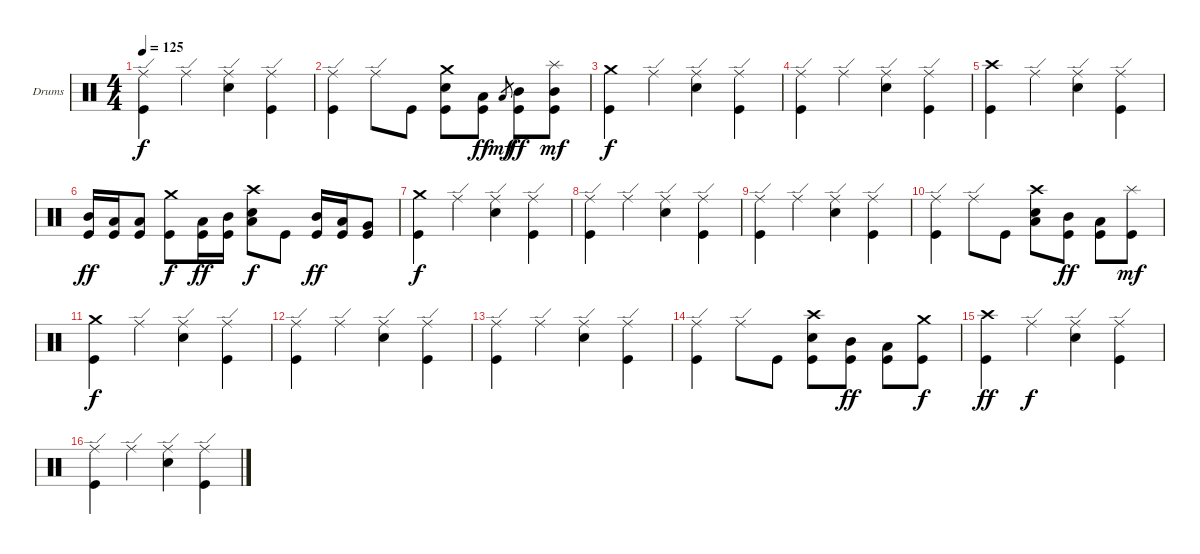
\bracketExtendMode groupsimilarinstruments
\firstSystemTrackNameOrientation horizontal
\otherSystemsTrackNameOrientation horizontal
\track ("Барабаны" "Drums") {instrument percussion}
\staff {score}
\articulation defaults
\ts (4 4)
\tempo 125
\clef neutral
\ks c
("Ride (edge)" "Kick (hit)").4{dy f} "Ride (edge)".4 ("Ride (edge)" "Snare (hit) 2").4 ("Ride (edge)" "Kick (hit)").4 |
("Ride (edge)" "Kick (hit)").4 "Ride (edge)".8 "Kick (hit)".8 ("Crash medium (hit)" "Snare (hit) 2" "Kick (hit)").8 ("Low Tom (hit)" "Kick (hit)").8{dy ff} "Low Tom (hit)".8{gr dy mf} ("Mid Tom (hit)" "Kick (hit)").8{dy ff} ("Mid Tom (hit)" "Kick (hit)" "Splash (hit)").8{dy mf} |
("Crash medium (hit)" "Kick (hit)").4{dy f} "Ride (edge)".4 ("Ride (edge)" "Snare (hit) 2").4 ("Ride (edge)" "Kick (hit)").4 |
("Ride (edge)" "Kick (hit)").4 "Ride (edge)".4 ("Ride (edge)" "Snare (hit) 2").4 ("Ride (edge)" "Kick (hit)").4 |
("Crash high (hit)" "Kick (hit)").4 "Ride (edge)".4 ("Ride (edge)" "Snare (hit) 2").4 ("Ride (edge)" "Kick (hit)").4 |
("Mid Tom (hit)" "Kick (hit)").16{dy ff} ("Low Tom (hit)" "Kick (hit)").16 ("Low Tom (hit)" "Kick (hit)").8 ("Crash medium (hit)" "Kick (hit)").8{dy f} ("Low Tom (hit)" "Kick (hit)").16{dy ff} ("Mid Tom (hit)" "Kick (hit)").16 ("Crash high (hit)" "Snare (hit) 2" "Low Tom (hit)").8{dy f} "Kick (hit)".8 ("Mid Tom (hit)" "Kick (hit)").16{dy ff} ("Low Tom (hit)" "Kick (hit)").16 ("Very Low Tom (hit)" "Kick (hit)").8 |
("Crash medium (hit)" "Kick (hit)").4{dy f} "Ride (edge)".4 ("Ride (edge)" "Snare (hit) 2").4 ("Ride (edge)" "Kick (hit)").4 |
("Ride (edge)" "Kick (hit)").4 "Ride (edge)".4 ("Ride (edge)" "Snare (hit) 2").4 ("Ride (edge)" "Kick (hit)").4 |
("Ride (edge)" "Kick (hit)").4 "Ride (edge)".4 ("Ride (edge)" "Snare (hit) 2").4 ("Ride (edge)" "Kick (hit)").4 |
("Ride (edge)" "Kick (hit)").4 "Ride (edge)".8 "Kick (hit)".8 ("Crash high (hit)" "Snare (hit) 2" "Low Tom (hit)").8 ("Mid Tom (hit)" "Kick (hit)").8{dy ff} ("Low Tom (hit)" "Kick (hit)").8 ("Kick (hit)" "Splash (hit)").8{dy mf} |
("Crash medium (hit)" "Kick (hit)").4{dy f} "Ride (edge)".4 ("Ride (edge)" "Snare (hit) 2").4 ("Ride (edge)" "Kick (hit)").4 |
("Ride (edge)" "Kick (hit)").4 "Ride (edge)".4 ("Ride (edge)" "Snare (hit) 2").4 ("Ride (edge)" "Kick (hit)").4 |
("Ride (edge)" "Kick (hit)").4 "Ride (edge)".4 ("Ride (edge)" "Snare (hit) 2").4 ("Ride (edge)" "Kick (hit)").4 |
("Ride (edge)" "Kick (hit)").4 "Ride (edge)".8 "Kick (hit)".8 ("Crash high (hit)" "Snare (hit) 2" "Kick (hit)").8 ("Mid Tom (hit)" "Kick (hit)").8{dy ff} ("Low Tom (hit)" "Kick (hit)").8 ("Crash medium (hit)" "Kick (hit)").8{dy f} |
("Crash high (hit)" "Kick (hit)").4{dy ff} "Ride (edge)".4{dy f} ("Ride (edge)" "Snare (hit) 2").4 ("Ride (edge)" "Kick (hit)").4 |
("Ride (edge)" "Kick (hit)").4 "Ride (edge)".4 ("Ride (edge)" "Snare (hit) 2").4 ("Ride (edge)" "Kick (hit)").4
